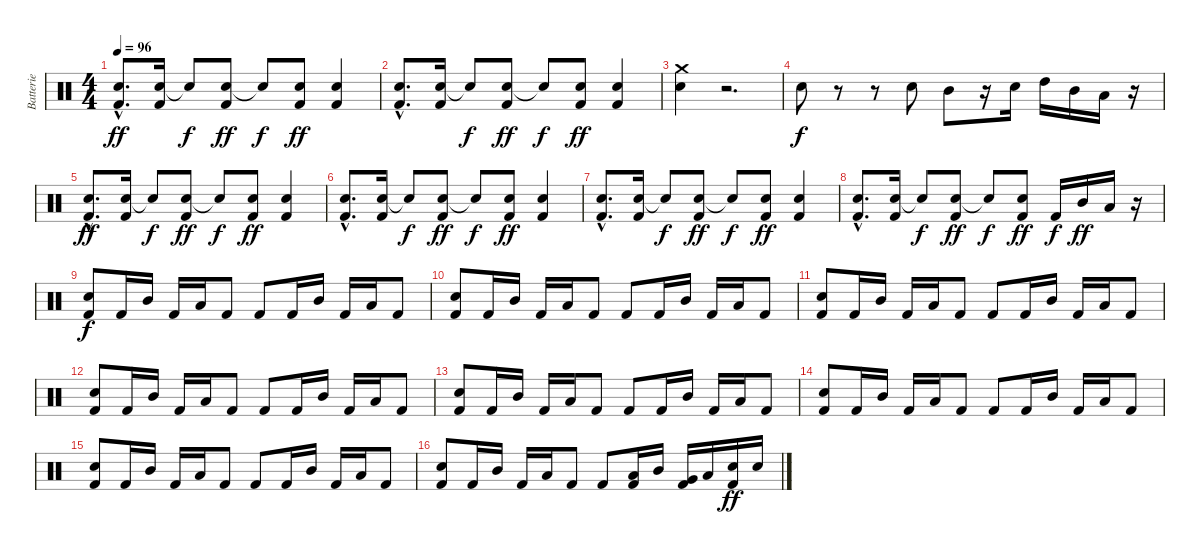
\track ("Batterie" "Batterie") {instrument percussion}
\staff {score}
\articulation defaults
\ts (4 4)
\tempo 96
\clef neutral
\ks c
("Snare (hit) 2"{hac} "Kick (hit) 2"{hac}).8{d dy ff} ("Snare (hit) 2" "Kick (hit) 2").16 "Snare (hit)"{t}.8{dy f} ("Snare (hit) 2" "Kick (hit) 2").8{dy ff} "Snare (hit)"{t}.8{dy f} ("Snare (hit) 2" "Kick (hit) 2").8{dy ff} ("Snare (hit) 2" "Kick (hit) 2").4 |
("Snare (hit) 2"{hac} "Kick (hit) 2"{hac}).8{d} ("Snare (hit) 2" "Kick (hit) 2").16 "Snare (hit)"{t}.8{dy f} ("Snare (hit) 2" "Kick (hit) 2").8{dy ff} "Snare (hit)"{t}.8{dy f} ("Snare (hit) 2" "Kick (hit) 2").8{dy ff} ("Snare (hit) 2" "Kick (hit) 2").4 |
("Crash medium (hit)" "Snare (hit) 2").4 r.2{d} |
"Snare (hit) 2".8{dy f} r.8 r.8 "Snare (hit) 2".8 "Mid Tom (hit)".8 r.16 "Snare (hit) 2".16 "High Tom (hit)".16 "Mid Tom (hit)".16 "Low Tom (hit)".16 r.16 |
("Snare (hit) 2"{hac} "Kick (hit) 2"{hac}).8{d dy ff} ("Snare (hit) 2" "Kick (hit) 2").16 "Snare (hit)"{t}.8{dy f} ("Snare (hit) 2" "Kick (hit) 2").8{dy ff} "Snare (hit)"{t}.8{dy f} ("Snare (hit) 2" "Kick (hit) 2").8{dy ff} ("Snare (hit) 2" "Kick (hit) 2").4 |
("Snare (hit) 2"{hac} "Kick (hit) 2"{hac}).8{d} ("Snare (hit) 2" "Kick (hit) 2").16 "Snare (hit)"{t}.8{dy f} ("Snare (hit) 2" "Kick (hit) 2").8{dy ff} "Snare (hit)"{t}.8{dy f} ("Snare (hit) 2" "Kick (hit) 2").8{dy ff} ("Snare (hit) 2" "Kick (hit) 2").4 |
("Snare (hit) 2"{hac} "Kick (hit) 2"{hac}).8{d} ("Snare (hit) 2" "Kick (hit) 2").16 "Snare (hit)"{t}.8{dy f} ("Snare (hit) 2" "Kick (hit) 2").8{dy ff} "Snare (hit)"{t}.8{dy f} ("Snare (hit) 2" "Kick (hit) 2").8{dy ff} ("Snare (hit) 2" "Kick (hit) 2").4 |
("Snare (hit) 2"{hac} "Kick (hit) 2"{hac}).8{d} ("Snare (hit) 2" "Kick (hit) 2").16 "Snare (hit)"{t}.8{dy f} ("Snare (hit) 2" "Kick (hit) 2").8{dy ff} "Snare (hit)"{t}.8{dy f} ("Snare (hit) 2" "Kick (hit) 2").8{dy ff} "Kick (hit) 2".16{dy f} "Mid Tom (hit)".16{dy ff} "Low Tom (hit)".16 r.16 |
("Snare (hit) 2" "Kick (hit) 2").8{dy f} "Kick (hit) 2".16 "Mid Tom (hit)".16 "Kick (hit) 2".16 "Low Tom (hit)".16 "Kick (hit) 2".8 "Kick (hit) 2".8 "Kick (hit) 2".16 "Mid Tom (hit)".16 "Kick (hit) 2".16 "Low Tom (hit)".16 "Kick (hit) 2".8 |
("Snare (hit) 2" "Kick (hit) 2").8 "Kick (hit) 2".16 "Mid Tom (hit)".16 "Kick (hit) 2".16 "Low Tom (hit)".16 "Kick (hit) 2".8 "Kick (hit) 2".8 "Kick (hit) 2".16 "Mid Tom (hit)".16 "Kick (hit) 2".16 "Low Tom (hit)".16 "Kick (hit) 2".8 |
("Snare (hit) 2" "Kick (hit) 2").8 "Kick (hit) 2".16 "Mid Tom (hit)".16 "Kick (hit) 2".16 "Low Tom (hit)".16 "Kick (hit) 2".8 "Kick (hit) 2".8 "Kick (hit) 2".16 "Mid Tom (hit)".16 "Kick (hit) 2".16 "Low Tom (hit)".16 "Kick (hit) 2".8 |
("Snare (hit) 2" "Kick (hit) 2").8 "Kick (hit) 2".16 "Mid Tom (hit)".16 "Kick (hit) 2".16 "Low Tom (hit)".16 "Kick (hit) 2".8 "Kick (hit) 2".8 "Kick (hit) 2".16 "Mid Tom (hit)".16 "Kick (hit) 2".16 "Low Tom (hit)".16 "Kick (hit) 2".8 |
("Snare (hit) 2" "Kick (hit) 2").8 "Kick (hit) 2".16 "Mid Tom (hit)".16 "Kick (hit) 2".16 "Low Tom (hit)".16 "Kick (hit) 2".8 "Kick (hit) 2".8 "Kick (hit) 2".16 "Mid Tom (hit)".16 "Kick (hit) 2".16 "Low Tom (hit)".16 "Kick (hit) 2".8 |
("Snare (hit) 2" "Kick (hit) 2").8 "Kick (hit) 2".16 "Mid Tom (hit)".16 "Kick (hit) 2".16 "Low Tom (hit)".16 "Kick (hit) 2".8 "Kick (hit) 2".8 "Kick (hit) 2".16 "Mid Tom (hit)".16 "Kick (hit) 2".16 "Low Tom (hit)".16 "Kick (hit) 2".8 |
("Snare (hit) 2" "Kick (hit) 2").8 "Kick (hit) 2".16 "Mid Tom (hit)".16 "Kick (hit) 2".16 "Low Tom (hit)".16 "Kick (hit) 2".8 "Kick (hit) 2".8 "Kick (hit) 2".16 "Mid Tom (hit)".16 "Kick (hit) 2".16 "Low Tom (hit)".16 "Kick (hit) 2".8 |
("Snare (hit) 2" "Kick (hit) 2").8 "Kick (hit) 2".16 "Mid Tom (hit)".16 "Kick (hit) 2".16 "Low Tom (hit)".16 "Kick (hit) 2".8 "Kick (hit) 2".8 ("Low Tom (hit)" "Kick (hit) 2").16 "Mid Tom (hit)".16 ("Very Low Tom (hit)" "Kick (hit) 2").16 "Low Tom (hit)".16 ("Snare (hit) 2" "Kick (hit) 2").16{dy ff} "Snare (hit) 2".16
